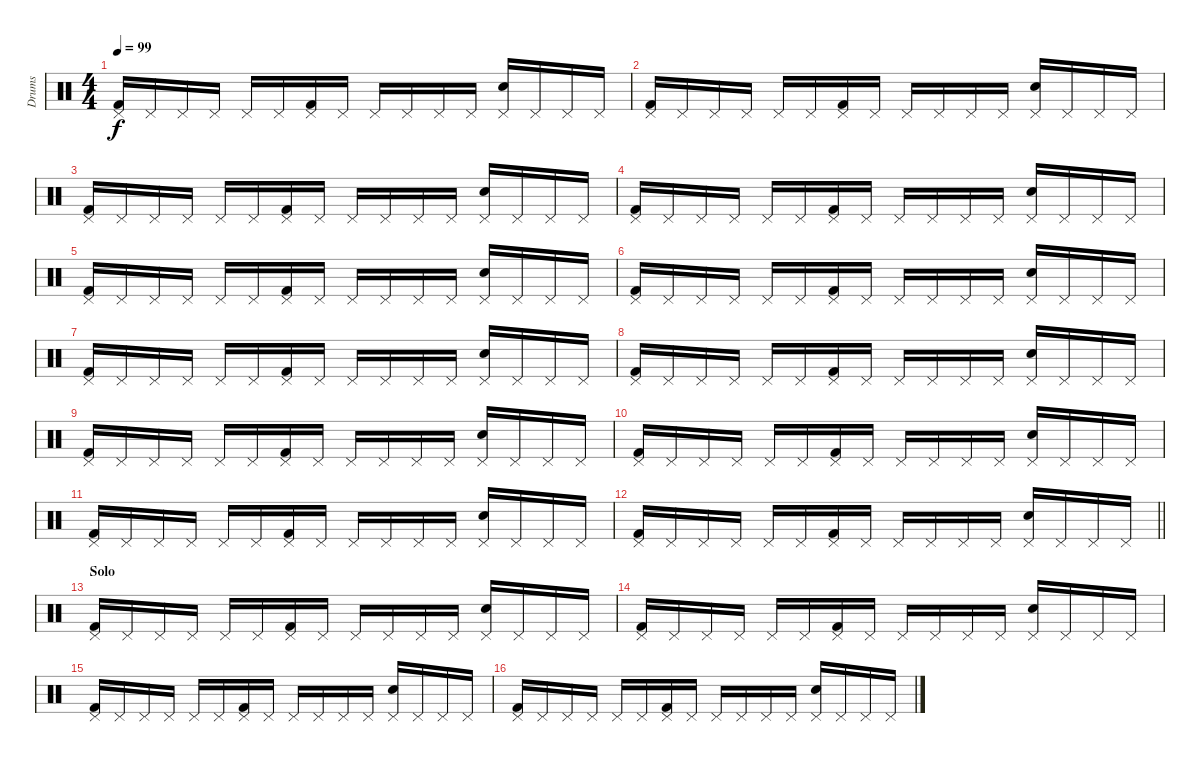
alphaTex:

\track ("Drums" "Drums") {instrument percussion}
\staff {score}
\articulation defaults
\ts (4 4)
\tempo 99
\clef neutral
\ks c
("Pedal Hi-Hat (hit)" "Kick (hit) 2").16{dy f} "Pedal Hi-Hat (hit)".16 "Pedal Hi-Hat (hit)".16 "Pedal Hi-Hat (hit)".16 "Pedal Hi-Hat (hit)".16 "Pedal Hi-Hat (hit)".16 ("Pedal Hi-Hat (hit)" "Kick (hit) 2").16 "Pedal Hi-Hat (hit)".16 "Pedal Hi-Hat (hit)".16 "Pedal Hi-Hat (hit)".16 "Pedal Hi-Hat (hit)".16 "Pedal Hi-Hat (hit)".16 ("Pedal Hi-Hat (hit)" "Snare (hit) 2").16 "Pedal Hi-Hat (hit)".16 "Pedal Hi-Hat (hit)".16 "Pedal Hi-Hat (hit)".16 |
("Pedal Hi-Hat (hit)" "Kick (hit) 2").16 "Pedal Hi-Hat (hit)".16 "Pedal Hi-Hat (hit)".16 "Pedal Hi-Hat (hit)".16 "Pedal Hi-Hat (hit)".16 "Pedal Hi-Hat (hit)".16 ("Pedal Hi-Hat (hit)" "Kick (hit) 2").16 "Pedal Hi-Hat (hit)".16 "Pedal Hi-Hat (hit)".16 "Pedal Hi-Hat (hit)".16 "Pedal Hi-Hat (hit)".16 "Pedal Hi-Hat (hit)".16 ("Pedal Hi-Hat (hit)" "Snare (hit) 2").16 "Pedal Hi-Hat (hit)".16 "Pedal Hi-Hat (hit)".16 "Pedal Hi-Hat (hit)".16 |
("Pedal Hi-Hat (hit)" "Kick (hit) 2").16 "Pedal Hi-Hat (hit)".16 "Pedal Hi-Hat (hit)".16 "Pedal Hi-Hat (hit)".16 "Pedal Hi-Hat (hit)".16 "Pedal Hi-Hat (hit)".16 ("Pedal Hi-Hat (hit)" "Kick (hit) 2").16 "Pedal Hi-Hat (hit)".16 "Pedal Hi-Hat (hit)".16 "Pedal Hi-Hat (hit)".16 "Pedal Hi-Hat (hit)".16 "Pedal Hi-Hat (hit)".16 ("Pedal Hi-Hat (hit)" "Snare (hit) 2").16 "Pedal Hi-Hat (hit)".16 "Pedal Hi-Hat (hit)".16 "Pedal Hi-Hat (hit)".16 |
("Pedal Hi-Hat (hit)" "Kick (hit) 2").16 "Pedal Hi-Hat (hit)".16 "Pedal Hi-Hat (hit)".16 "Pedal Hi-Hat (hit)".16 "Pedal Hi-Hat (hit)".16 "Pedal Hi-Hat (hit)".16 ("Pedal Hi-Hat (hit)" "Kick (hit) 2").16 "Pedal Hi-Hat (hit)".16 "Pedal Hi-Hat (hit)".16 "Pedal Hi-Hat (hit)".16 "Pedal Hi-Hat (hit)".16 "Pedal Hi-Hat (hit)".16 ("Pedal Hi-Hat (hit)" "Snare (hit) 2").16 "Pedal Hi-Hat (hit)".16 "Pedal Hi-Hat (hit)".16 "Pedal Hi-Hat (hit)".16 |
("Pedal Hi-Hat (hit)" "Kick (hit) 2").16 "Pedal Hi-Hat (hit)".16 "Pedal Hi-Hat (hit)".16 "Pedal Hi-Hat (hit)".16 "Pedal Hi-Hat (hit)".16 "Pedal Hi-Hat (hit)".16 ("Pedal Hi-Hat (hit)" "Kick (hit) 2").16 "Pedal Hi-Hat (hit)".16 "Pedal Hi-Hat (hit)".16 "Pedal Hi-Hat (hit)".16 "Pedal Hi-Hat (hit)".16 "Pedal Hi-Hat (hit)".16 ("Pedal Hi-Hat (hit)" "Snare (hit) 2").16 "Pedal Hi-Hat (hit)".16 "Pedal Hi-Hat (hit)".16 "Pedal Hi-Hat (hit)".16 |
("Pedal Hi-Hat (hit)" "Kick (hit) 2").16 "Pedal Hi-Hat (hit)".16 "Pedal Hi-Hat (hit)".16 "Pedal Hi-Hat (hit)".16 "Pedal Hi-Hat (hit)".16 "Pedal Hi-Hat (hit)".16 ("Pedal Hi-Hat (hit)" "Kick (hit) 2").16 "Pedal Hi-Hat (hit)".16 "Pedal Hi-Hat (hit)".16 "Pedal Hi-Hat (hit)".16 "Pedal Hi-Hat (hit)".16 "Pedal Hi-Hat (hit)".16 ("Pedal Hi-Hat (hit)" "Snare (hit) 2").16 "Pedal Hi-Hat (hit)".16 "Pedal Hi-Hat (hit)".16 "Pedal Hi-Hat (hit)".16 |
("Pedal Hi-Hat (hit)" "Kick (hit) 2").16 "Pedal Hi-Hat (hit)".16 "Pedal Hi-Hat (hit)".16 "Pedal Hi-Hat (hit)".16 "Pedal Hi-Hat (hit)".16 "Pedal Hi-Hat (hit)".16 ("Pedal Hi-Hat (hit)" "Kick (hit) 2").16 "Pedal Hi-Hat (hit)".16 "Pedal Hi-Hat (hit)".16 "Pedal Hi-Hat (hit)".16 "Pedal Hi-Hat (hit)".16 "Pedal Hi-Hat (hit)".16 ("Pedal Hi-Hat (hit)" "Snare (hit) 2").16 "Pedal Hi-Hat (hit)".16 "Pedal Hi-Hat (hit)".16 "Pedal Hi-Hat (hit)".16 |
("Pedal Hi-Hat (hit)" "Kick (hit) 2").16 "Pedal Hi-Hat (hit)".16 "Pedal Hi-Hat (hit)".16 "Pedal Hi-Hat (hit)".16 "Pedal Hi-Hat (hit)".16 "Pedal Hi-Hat (hit)".16 ("Pedal Hi-Hat (hit)" "Kick (hit) 2").16 "Pedal Hi-Hat (hit)".16 "Pedal Hi-Hat (hit)".16 "Pedal Hi-Hat (hit)".16 "Pedal Hi-Hat (hit)".16 "Pedal Hi-Hat (hit)".16 ("Pedal Hi-Hat (hit)" "Snare (hit) 2").16 "Pedal Hi-Hat (hit)".16 "Pedal Hi-Hat (hit)".16 "Pedal Hi-Hat (hit)".16 |
("Pedal Hi-Hat (hit)" "Kick (hit) 2").16 "Pedal Hi-Hat (hit)".16 "Pedal Hi-Hat (hit)".16 "Pedal Hi-Hat (hit)".16 "Pedal Hi-Hat (hit)".16 "Pedal Hi-Hat (hit)".16 ("Pedal Hi-Hat (hit)" "Kick (hit) 2").16 "Pedal Hi-Hat (hit)".16 "Pedal Hi-Hat (hit)".16 "Pedal Hi-Hat (hit)".16 "Pedal Hi-Hat (hit)".16 "Pedal Hi-Hat (hit)".16 ("Pedal Hi-Hat (hit)" "Snare (hit) 2").16 "Pedal Hi-Hat (hit)".16 "Pedal Hi-Hat (hit)".16 "Pedal Hi-Hat (hit)".16 |
("Pedal Hi-Hat (hit)" "Kick (hit) 2").16 "Pedal Hi-Hat (hit)".16 "Pedal Hi-Hat (hit)".16 "Pedal Hi-Hat (hit)".16 "Pedal Hi-Hat (hit)".16 "Pedal Hi-Hat (hit)".16 ("Pedal Hi-Hat (hit)" "Kick (hit) 2").16 "Pedal Hi-Hat (hit)".16 "Pedal Hi-Hat (hit)".16 "Pedal Hi-Hat (hit)".16 "Pedal Hi-Hat (hit)".16 "Pedal Hi-Hat (hit)".16 ("Pedal Hi-Hat (hit)" "Snare (hit) 2").16 "Pedal Hi-Hat (hit)".16 "Pedal Hi-Hat (hit)".16 "Pedal Hi-Hat (hit)".16 |
("Pedal Hi-Hat (hit)" "Kick (hit) 2").16 "Pedal Hi-Hat (hit)".16 "Pedal Hi-Hat (hit)".16 "Pedal Hi-Hat (hit)".16 "Pedal Hi-Hat (hit)".16 "Pedal Hi-Hat (hit)".16 ("Pedal Hi-Hat (hit)" "Kick (hit) 2").16 "Pedal Hi-Hat (hit)".16 "Pedal Hi-Hat (hit)".16 "Pedal Hi-Hat (hit)".16 "Pedal Hi-Hat (hit)".16 "Pedal Hi-Hat (hit)".16 ("Pedal Hi-Hat (hit)" "Snare (hit) 2").16 "Pedal Hi-Hat (hit)".16 "Pedal Hi-Hat (hit)".16 "Pedal Hi-Hat (hit)".16 |
\barLineRight lightlight
("Pedal Hi-Hat (hit)" "Kick (hit) 2").16 "Pedal Hi-Hat (hit)".16 "Pedal Hi-Hat (hit)".16 "Pedal Hi-Hat (hit)".16 "Pedal Hi-Hat (hit)".16 "Pedal Hi-Hat (hit)".16 ("Pedal Hi-Hat (hit)" "Kick (hit) 2").16 "Pedal Hi-Hat (hit)".16 "Pedal Hi-Hat (hit)".16 "Pedal Hi-Hat (hit)".16 "Pedal Hi-Hat (hit)".16 "Pedal Hi-Hat (hit)".16 ("Pedal Hi-Hat (hit)" "Snare (hit) 2").16 "Pedal Hi-Hat (hit)".16 "Pedal Hi-Hat (hit)".16 "Pedal Hi-Hat (hit)".16 |
\section ("" "Solo")
("Pedal Hi-Hat (hit)" "Kick (hit) 2").16 "Pedal Hi-Hat (hit)".16 "Pedal Hi-Hat (hit)".16 "Pedal Hi-Hat (hit)".16 "Pedal Hi-Hat (hit)".16 "Pedal Hi-Hat (hit)".16 ("Pedal Hi-Hat (hit)" "Kick (hit) 2").16 "Pedal Hi-Hat (hit)".16 "Pedal Hi-Hat (hit)".16 "Pedal Hi-Hat (hit)".16 "Pedal Hi-Hat (hit)".16 "Pedal Hi-Hat (hit)".16 ("Pedal Hi-Hat (hit)" "Snare (hit) 2").16 "Pedal Hi-Hat (hit)".16 "Pedal Hi-Hat (hit)".16 "Pedal Hi-Hat (hit)".16 |
("Pedal Hi-Hat (hit)" "Kick (hit) 2").16 "Pedal Hi-Hat (hit)".16 "Pedal Hi-Hat (hit)".16 "Pedal Hi-Hat (hit)".16 "Pedal Hi-Hat (hit)".16 "Pedal Hi-Hat (hit)".16 ("Pedal Hi-Hat (hit)" "Kick (hit) 2").16 "Pedal Hi-Hat (hit)".16 "Pedal Hi-Hat (hit)".16 "Pedal Hi-Hat (hit)".16 "Pedal Hi-Hat (hit)".16 "Pedal Hi-Hat (hit)".16 ("Pedal Hi-Hat (hit)" "Snare (hit) 2").16 "Pedal Hi-Hat (hit)".16 "Pedal Hi-Hat (hit)".16 "Pedal Hi-Hat (hit)".16 |
("Pedal Hi-Hat (hit)" "Kick (hit) 2").16 "Pedal Hi-Hat (hit)".16 "Pedal Hi-Hat (hit)".16 "Pedal Hi-Hat (hit)".16 "Pedal Hi-Hat (hit)".16 "Pedal Hi-Hat (hit)".16 ("Pedal Hi-Hat (hit)" "Kick (hit) 2").16 "Pedal Hi-Hat (hit)".16 "Pedal Hi-Hat (hit)".16 "Pedal Hi-Hat (hit)".16 "Pedal Hi-Hat (hit)".16 "Pedal Hi-Hat (hit)".16 ("Pedal Hi-Hat (hit)" "Snare (hit) 2").16 "Pedal Hi-Hat (hit)".16 "Pedal Hi-Hat (hit)".16 "Pedal Hi-Hat (hit)".16 |
("Pedal Hi-Hat (hit)" "Kick (hit) 2").16 "Pedal Hi-Hat (hit)".16 "Pedal Hi-Hat (hit)".16 "Pedal Hi-Hat (hit)".16 "Pedal Hi-Hat (hit)".16 "Pedal Hi-Hat (hit)".16 ("Pedal Hi-Hat (hit)" "Kick (hit) 2").16 "Pedal Hi-Hat (hit)".16 "Pedal Hi-Hat (hit)".16 "Pedal Hi-Hat (hit)".16 "Pedal Hi-Hat (hit)".16 "Pedal Hi-Hat (hit)".16 ("Pedal Hi-Hat (hit)" "Snare (hit) 2").16 "Pedal Hi-Hat (hit)".16 "Pedal Hi-Hat (hit)".16 "Pedal Hi-Hat (hit)".16
